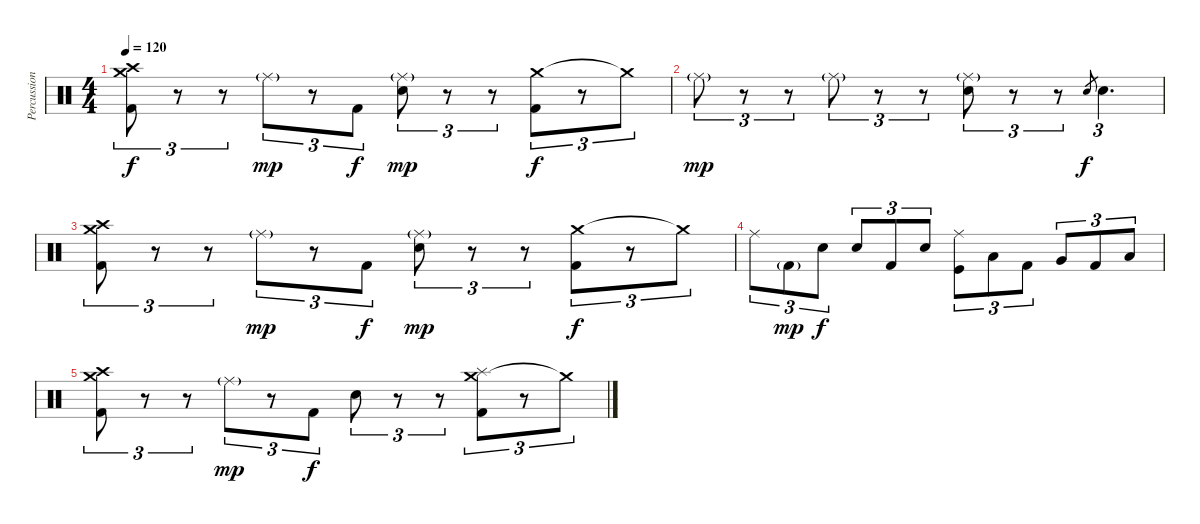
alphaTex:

\track ("Percussions" "Percussion") {instrument percussion}
\staff {score}
\articulation defaults
\ts (4 4)
\tempo 120
\clef neutral
\ks c
("Crash medium (hit)" "Crash high (hit)" "Kick (hit) 2").8{tu (3 2) dy f} r.8{tu (3 2)} r.8{tu (3 2)} "Ride (middle)"{g}.8{tu (3 2) dy mp} r.8{tu (3 2)} "Kick (hit) 2".8{tu (3 2) dy f} ("Ride (middle)"{g} "Electric Snare (hit)").8{tu (3 2) dy mp} r.8{tu (3 2)} r.8{tu (3 2)} ("Crash medium (hit)" "Kick (hit) 2").8{tu (3 2) dy f} r.8{tu (3 2)} "Crash medium (hit)"{t}.8{tu (3 2)} |
"Ride (middle)"{g}.8{tu (3 2) dy mp} r.8{tu (3 2)} r.8{tu (3 2)} "Ride (middle)"{g}.8{tu (3 2)} r.8{tu (3 2)} r.8{tu (3 2)} ("Ride (middle)"{g} "Electric Snare (hit)").8{tu (3 2)} r.8{tu (3 2)} r.8{tu (3 2)} "Electric Snare (hit)".8{gr dy f} "Electric Snare (hit)".4{d tu (3 2)} |
("Crash medium (hit)" "Crash high (hit)" "Kick (hit) 2").8{tu (3 2)} r.8{tu (3 2)} r.8{tu (3 2)} "Ride (middle)"{g}.8{tu (3 2) dy mp} r.8{tu (3 2)} "Kick (hit) 2".8{tu (3 2) dy f} ("Ride (middle)"{g} "Electric Snare (hit)").8{tu (3 2) dy mp} r.8{tu (3 2)} r.8{tu (3 2)} ("Crash medium (hit)" "Kick (hit) 2").8{tu (3 2) dy f} r.8{tu (3 2)} "Crash medium (hit)"{t}.8{tu (3 2)} |
"Ride (middle)".8{tu (3 2)} "Kick (hit) 2"{g}.8{tu (3 2) dy mp} "Electric Snare (hit)".8{tu (3 2) dy f} "Electric Snare (hit)".8{tu (3 2)} "Kick (hit) 2".8{tu (3 2)} "Electric Snare (hit)".8{tu (3 2)} ("Ride (middle)" "Kick (hit)").8{tu (3 2)} "Low Tom (hit)".8{tu (3 2)} "Kick (hit) 2".8{tu (3 2)} "Very Low Tom (hit)".8{tu (3 2)} "Kick (hit) 2".8{tu (3 2)} "Low Floor Tom (hit)".8{tu (3 2)} |
("Crash medium (hit)" "Crash high (hit)" "Kick (hit) 2").8{tu (3 2)} r.8{tu (3 2)} r.8{tu (3 2)} "Ride (middle)"{g}.8{tu (3 2) dy mp} r.8{tu (3 2)} "Kick (hit) 2".8{tu (3 2) dy f} "Electric Snare (hit)".8{tu (3 2)} r.8{tu (3 2)} r.8{tu (3 2)} ("Crash medium (hit)" "Splash (hit)" "Kick (hit) 2").8{tu (3 2)} r.8{tu (3 2)} "Crash medium (hit)"{t}.8{tu (3 2)}
